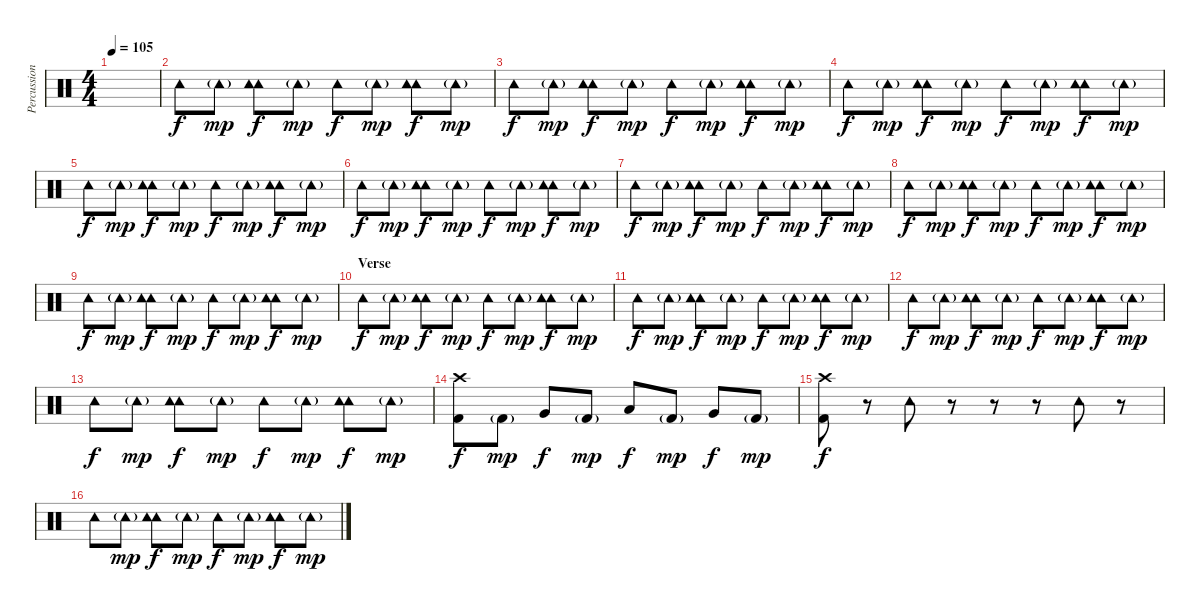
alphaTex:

\track ("Percussion" "Percussion") {instrument percussion}
\staff {score}
\articulation defaults
\ts (4 4)
\tempo 105
\clef neutral
\ks c
|
"Tambourine (hit)".8 "Tambourine (hit)"{g}.8{dy mp} ("Tambourine (hit)" "Tambourine (hit)").8{dy f} "Tambourine (hit)"{g}.8{dy mp} "Tambourine (hit)".8{dy f} "Tambourine (hit)"{g}.8{dy mp} ("Tambourine (hit)" "Tambourine (hit)").8{dy f} "Tambourine (hit)"{g}.8{dy mp} |
"Tambourine (hit)".8{dy f} "Tambourine (hit)"{g}.8{dy mp} ("Tambourine (hit)" "Tambourine (hit)").8{dy f} "Tambourine (hit)"{g}.8{dy mp} "Tambourine (hit)".8{dy f} "Tambourine (hit)"{g}.8{dy mp} ("Tambourine (hit)" "Tambourine (hit)").8{dy f} "Tambourine (hit)"{g}.8{dy mp} |
"Tambourine (hit)".8{dy f} "Tambourine (hit)"{g}.8{dy mp} ("Tambourine (hit)" "Tambourine (hit)").8{dy f} "Tambourine (hit)"{g}.8{dy mp} "Tambourine (hit)".8{dy f} "Tambourine (hit)"{g}.8{dy mp} ("Tambourine (hit)" "Tambourine (hit)").8{dy f} "Tambourine (hit)"{g}.8{dy mp} |
"Tambourine (hit)".8{dy f} "Tambourine (hit)"{g}.8{dy mp} ("Tambourine (hit)" "Tambourine (hit)").8{dy f} "Tambourine (hit)"{g}.8{dy mp} "Tambourine (hit)".8{dy f} "Tambourine (hit)"{g}.8{dy mp} ("Tambourine (hit)" "Tambourine (hit)").8{dy f} "Tambourine (hit)"{g}.8{dy mp} |
"Tambourine (hit)".8{dy f} "Tambourine (hit)"{g}.8{dy mp} ("Tambourine (hit)" "Tambourine (hit)").8{dy f} "Tambourine (hit)"{g}.8{dy mp} "Tambourine (hit)".8{dy f} "Tambourine (hit)"{g}.8{dy mp} ("Tambourine (hit)" "Tambourine (hit)").8{dy f} "Tambourine (hit)"{g}.8{dy mp} |
"Tambourine (hit)".8{dy f} "Tambourine (hit)"{g}.8{dy mp} ("Tambourine (hit)" "Tambourine (hit)").8{dy f} "Tambourine (hit)"{g}.8{dy mp} "Tambourine (hit)".8{dy f} "Tambourine (hit)"{g}.8{dy mp} ("Tambourine (hit)" "Tambourine (hit)").8{dy f} "Tambourine (hit)"{g}.8{dy mp} |
"Tambourine (hit)".8{dy f} "Tambourine (hit)"{g}.8{dy mp} ("Tambourine (hit)" "Tambourine (hit)").8{dy f} "Tambourine (hit)"{g}.8{dy mp} "Tambourine (hit)".8{dy f} "Tambourine (hit)"{g}.8{dy mp} ("Tambourine (hit)" "Tambourine (hit)").8{dy f} "Tambourine (hit)"{g}.8{dy mp} |
"Tambourine (hit)".8{dy f} "Tambourine (hit)"{g}.8{dy mp} ("Tambourine (hit)" "Tambourine (hit)").8{dy f} "Tambourine (hit)"{g}.8{dy mp} "Tambourine (hit)".8{dy f} "Tambourine (hit)"{g}.8{dy mp} ("Tambourine (hit)" "Tambourine (hit)").8{dy f} "Tambourine (hit)"{g}.8{dy mp} |
\section ("" "Verse")
"Tambourine (hit)".8{dy f} "Tambourine (hit)"{g}.8{dy mp} ("Tambourine (hit)" "Tambourine (hit)").8{dy f} "Tambourine (hit)"{g}.8{dy mp} "Tambourine (hit)".8{dy f} "Tambourine (hit)"{g}.8{dy mp} ("Tambourine (hit)" "Tambourine (hit)").8{dy f} "Tambourine (hit)"{g}.8{dy mp} |
"Tambourine (hit)".8{dy f} "Tambourine (hit)"{g}.8{dy mp} ("Tambourine (hit)" "Tambourine (hit)").8{dy f} "Tambourine (hit)"{g}.8{dy mp} "Tambourine (hit)".8{dy f} "Tambourine (hit)"{g}.8{dy mp} ("Tambourine (hit)" "Tambourine (hit)").8{dy f} "Tambourine (hit)"{g}.8{dy mp} |
"Tambourine (hit)".8{dy f} "Tambourine (hit)"{g}.8{dy mp} ("Tambourine (hit)" "Tambourine (hit)").8{dy f} "Tambourine (hit)"{g}.8{dy mp} "Tambourine (hit)".8{dy f} "Tambourine (hit)"{g}.8{dy mp} ("Tambourine (hit)" "Tambourine (hit)").8{dy f} "Tambourine (hit)"{g}.8{dy mp} |
"Tambourine (hit)".8{dy f} "Tambourine (hit)"{g}.8{dy mp} ("Tambourine (hit)" "Tambourine (hit)").8{dy f} "Tambourine (hit)"{g}.8{dy mp} "Tambourine (hit)".8{dy f} "Tambourine (hit)"{g}.8{dy mp} ("Tambourine (hit)" "Tambourine (hit)").8{dy f} "Tambourine (hit)"{g}.8{dy mp} |
("Kick (hit) 2" "Crash high (hit)").8{dy f} "Kick (hit) 2"{g}.8{dy mp} "Very Low Tom (hit)".8{dy f} "Kick (hit) 2"{g}.8{dy mp} "Low Floor Tom (hit)".8{dy f} "Kick (hit) 2"{g}.8{dy mp} "Very Low Tom (hit)".8{dy f} "Kick (hit) 2"{g}.8{dy mp} |
("Kick (hit) 2" "Crash high (hit)").8{dy f} r.8 "Tambourine (hit)".8 r.8 r.8 r.8 "Tambourine (hit)".8 r.8 |
"Tambourine (hit)".8 "Tambourine (hit)"{g}.8{dy mp} ("Tambourine (hit)" "Tambourine (hit)").8{dy f} "Tambourine (hit)"{g}.8{dy mp} "Tambourine (hit)".8{dy f} "Tambourine (hit)"{g}.8{dy mp} ("Tambourine (hit)" "Tambourine (hit)").8{dy f} "Tambourine (hit)"{g}.8{dy mp}
